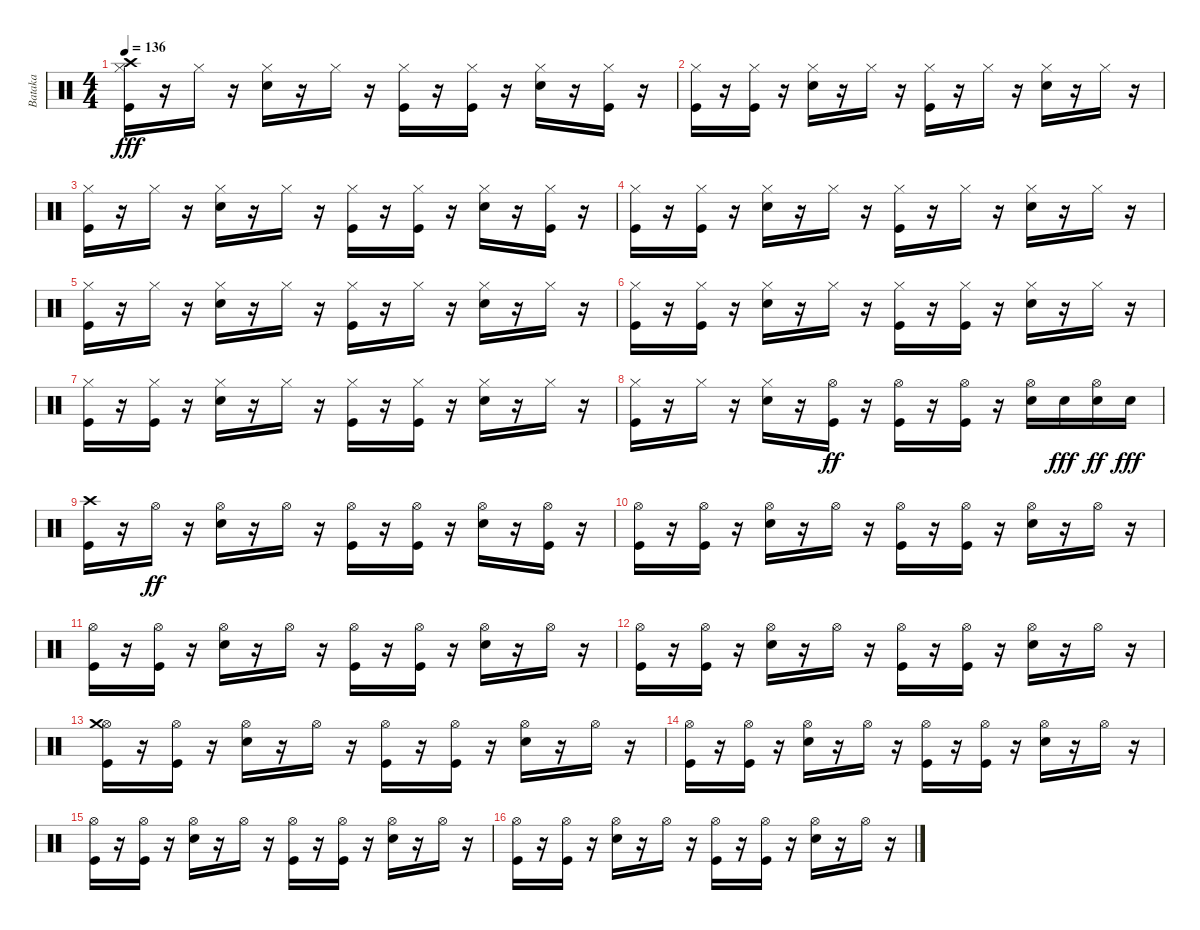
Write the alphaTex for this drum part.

\track ("Bataka" "Bataka") {instrument percussion}
\staff {score}
\articulation defaults
\ts (4 4)
\tempo 136
\clef neutral
\ks c
("Kick (hit)" "Hi-Hat (closed)" "Crash high (hit)").16{dy fff} r.16 "Hi-Hat (closed)".16 r.16 ("Snare (hit) 2" "Hi-Hat (closed)").16 r.16 "Hi-Hat (closed)".16 r.16 ("Kick (hit)" "Hi-Hat (closed)").16 r.16 ("Kick (hit)" "Hi-Hat (closed)").16 r.16 ("Snare (hit) 2" "Hi-Hat (closed)").16 r.16 ("Kick (hit)" "Hi-Hat (closed)").16 r.16 |
("Kick (hit)" "Hi-Hat (closed)").16 r.16 ("Kick (hit)" "Hi-Hat (closed)").16 r.16 ("Snare (hit) 2" "Hi-Hat (closed)").16 r.16 "Hi-Hat (closed)".16 r.16 ("Kick (hit)" "Hi-Hat (closed)").16 r.16 "Hi-Hat (closed)".16 r.16 ("Snare (hit) 2" "Hi-Hat (closed)").16 r.16 "Hi-Hat (closed)".16 r.16 |
("Kick (hit)" "Hi-Hat (closed)").16 r.16 "Hi-Hat (closed)".16 r.16 ("Snare (hit) 2" "Hi-Hat (closed)").16 r.16 "Hi-Hat (closed)".16 r.16 ("Kick (hit)" "Hi-Hat (closed)").16 r.16 ("Kick (hit)" "Hi-Hat (closed)").16 r.16 ("Snare (hit) 2" "Hi-Hat (closed)").16 r.16 ("Kick (hit)" "Hi-Hat (closed)").16 r.16 |
("Kick (hit)" "Hi-Hat (closed)").16 r.16 ("Kick (hit)" "Hi-Hat (closed)").16 r.16 ("Snare (hit) 2" "Hi-Hat (closed)").16 r.16 "Hi-Hat (closed)".16 r.16 ("Kick (hit)" "Hi-Hat (closed)").16 r.16 "Hi-Hat (closed)".16 r.16 ("Snare (hit) 2" "Hi-Hat (closed)").16 r.16 "Hi-Hat (closed)".16 r.16 |
("Kick (hit)" "Hi-Hat (closed)").16 r.16 "Hi-Hat (closed)".16 r.16 ("Snare (hit) 2" "Hi-Hat (closed)").16 r.16 "Hi-Hat (closed)".16 r.16 ("Kick (hit)" "Hi-Hat (closed)").16 r.16 "Hi-Hat (closed)".16 r.16 ("Snare (hit) 2" "Hi-Hat (closed)").16 r.16 "Hi-Hat (closed)".16 r.16 |
("Kick (hit)" "Hi-Hat (closed)").16 r.16 ("Kick (hit)" "Hi-Hat (closed)").16 r.16 ("Snare (hit) 2" "Hi-Hat (closed)").16 r.16 "Hi-Hat (closed)".16 r.16 ("Kick (hit)" "Hi-Hat (closed)").16 r.16 ("Kick (hit)" "Hi-Hat (closed)").16 r.16 ("Snare (hit) 2" "Hi-Hat (closed)").16 r.16 "Hi-Hat (closed)".16 r.16 |
("Kick (hit)" "Hi-Hat (closed)").16 r.16 ("Kick (hit)" "Hi-Hat (closed)").16 r.16 ("Snare (hit) 2" "Hi-Hat (closed)").16 r.16 "Hi-Hat (closed)".16 r.16 ("Kick (hit)" "Hi-Hat (closed)").16 r.16 ("Kick (hit)" "Hi-Hat (closed)").16 r.16 ("Snare (hit) 2" "Hi-Hat (closed)").16 r.16 "Hi-Hat (closed)".16 r.16 |
("Kick (hit)" "Hi-Hat (closed)").16 r.16 "Hi-Hat (closed)".16 r.16 ("Snare (hit) 2" "Hi-Hat (closed)").16 r.16 ("Kick (hit)" "Hi-Hat (open)").16{dy ff} r.16 ("Kick (hit)" "Hi-Hat (open)").16 r.16 ("Kick (hit)" "Hi-Hat (open)").16 r.16 ("Snare (hit) 2" "Hi-Hat (open)").16 "Snare (hit) 2".16{dy fff} ("Snare (hit) 2" "Hi-Hat (open)").16{dy ff} "Snare (hit) 2".16{dy fff} |
("Kick (hit)" "Crash high (hit)").16 r.16 "Hi-Hat (open)".16{dy ff} r.16 ("Snare (hit) 2" "Hi-Hat (open)").16 r.16 "Hi-Hat (open)".16 r.16 ("Kick (hit)" "Hi-Hat (open)").16 r.16 ("Kick (hit)" "Hi-Hat (open)").16 r.16 ("Snare (hit) 2" "Hi-Hat (open)").16 r.16 ("Kick (hit)" "Hi-Hat (open)").16 r.16 |
("Kick (hit)" "Hi-Hat (open)").16 r.16 ("Kick (hit)" "Hi-Hat (open)").16 r.16 ("Snare (hit) 2" "Hi-Hat (open)").16 r.16 "Hi-Hat (open)".16 r.16 ("Kick (hit)" "Hi-Hat (open)").16 r.16 ("Kick (hit)" "Hi-Hat (open)").16 r.16 ("Snare (hit) 2" "Hi-Hat (open)").16 r.16 "Hi-Hat (open)".16 r.16 |
("Kick (hit)" "Hi-Hat (open)").16 r.16 ("Kick (hit)" "Hi-Hat (open)").16 r.16 ("Snare (hit) 2" "Hi-Hat (open)").16 r.16 "Hi-Hat (open)".16 r.16 ("Kick (hit)" "Hi-Hat (open)").16 r.16 ("Kick (hit)" "Hi-Hat (open)").16 r.16 ("Snare (hit) 2" "Hi-Hat (open)").16 r.16 "Hi-Hat (open)".16 r.16 |
("Kick (hit)" "Hi-Hat (open)").16 r.16 ("Kick (hit)" "Hi-Hat (open)").16 r.16 ("Snare (hit) 2" "Hi-Hat (open)").16 r.16 "Hi-Hat (open)".16 r.16 ("Kick (hit)" "Hi-Hat (open)").16 r.16 ("Kick (hit)" "Hi-Hat (open)").16 r.16 ("Snare (hit) 2" "Hi-Hat (open)").16 r.16 "Hi-Hat (open)".16 r.16 |
("Kick (hit)" "Hi-Hat (open)" "Crash medium (hit)").16 r.16 ("Kick (hit)" "Hi-Hat (open)").16 r.16 ("Snare (hit) 2" "Hi-Hat (open)").16 r.16 "Hi-Hat (open)".16 r.16 ("Kick (hit)" "Hi-Hat (open)").16 r.16 ("Kick (hit)" "Hi-Hat (open)").16 r.16 ("Snare (hit) 2" "Hi-Hat (open)").16 r.16 "Hi-Hat (open)".16 r.16 |
("Kick (hit)" "Hi-Hat (open)").16 r.16 ("Kick (hit)" "Hi-Hat (open)").16 r.16 ("Snare (hit) 2" "Hi-Hat (open)").16 r.16 "Hi-Hat (open)".16 r.16 ("Kick (hit)" "Hi-Hat (open)").16 r.16 ("Kick (hit)" "Hi-Hat (open)").16 r.16 ("Snare (hit) 2" "Hi-Hat (open)").16 r.16 "Hi-Hat (open)".16 r.16 |
("Kick (hit)" "Hi-Hat (open)").16 r.16 ("Kick (hit)" "Hi-Hat (open)").16 r.16 ("Snare (hit) 2" "Hi-Hat (open)").16 r.16 "Hi-Hat (open)".16 r.16 ("Kick (hit)" "Hi-Hat (open)").16 r.16 ("Kick (hit)" "Hi-Hat (open)").16 r.16 ("Snare (hit) 2" "Hi-Hat (open)").16 r.16 "Hi-Hat (open)".16 r.16 |
("Kick (hit)" "Hi-Hat (open)").16 r.16 ("Kick (hit)" "Hi-Hat (open)").16 r.16 ("Snare (hit) 2" "Hi-Hat (open)").16 r.16 "Hi-Hat (open)".16 r.16 ("Kick (hit)" "Hi-Hat (open)").16 r.16 ("Kick (hit)" "Hi-Hat (open)").16 r.16 ("Snare (hit) 2" "Hi-Hat (open)").16 r.16 "Hi-Hat (open)".16 r.16
